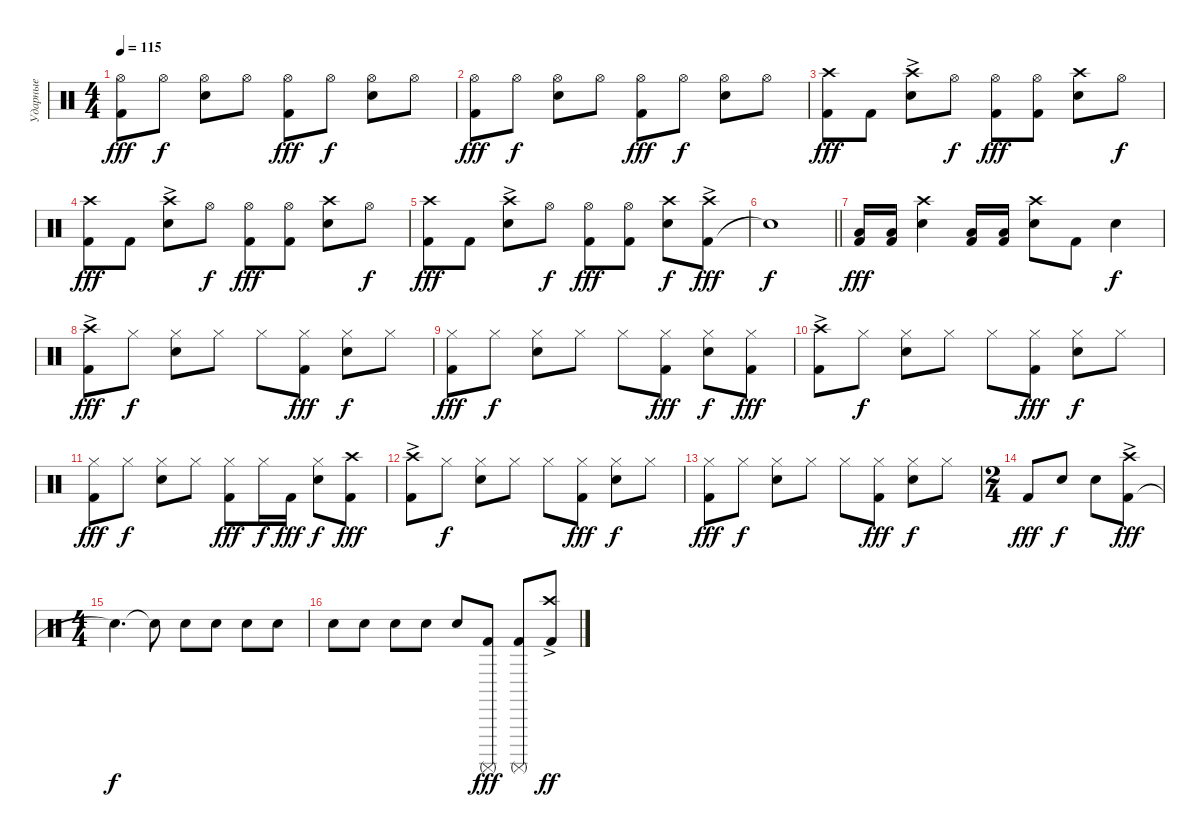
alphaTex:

\track ("Ударные" "Ударные") {instrument percussion}
\staff {score}
\articulation defaults
\ts (4 4)
\tempo 115
\clef neutral
\ks c
("Kick (hit) 2" "Hi-Hat (open)").8{dy fff} "Hi-Hat (open)".8{dy f} ("Snare (hit) 2" "Hi-Hat (open)").8 "Hi-Hat (open)".8 ("Kick (hit) 2" "Hi-Hat (open)").8{dy fff} "Hi-Hat (open)".8{dy f} ("Snare (hit) 2" "Hi-Hat (open)").8 "Hi-Hat (open)".8 |
("Kick (hit) 2" "Hi-Hat (open)").8{dy fff} "Hi-Hat (open)".8{dy f} ("Snare (hit) 2" "Hi-Hat (open)").8 "Hi-Hat (open)".8 ("Kick (hit) 2" "Hi-Hat (open)").8{dy fff} "Hi-Hat (open)".8{dy f} ("Snare (hit) 2" "Hi-Hat (open)").8 "Hi-Hat (open)".8 |
("Kick (hit) 2" "Crash high (hit)").8{dy fff} "Kick (hit) 2".8 ("Snare (hit) 2" "Crash high (hit)"{ac}).8 "Hi-Hat (open)".8{dy f} ("Kick (hit) 2" "Hi-Hat (open)").8{dy fff} ("Kick (hit) 2" "Hi-Hat (open)").8 ("Snare (hit) 2" "Crash high (hit)").8 "Hi-Hat (open)".8{dy f} |
("Kick (hit) 2" "Crash high (hit)").8{dy fff} "Kick (hit) 2".8 ("Snare (hit) 2" "Crash high (hit)"{ac}).8 "Hi-Hat (open)".8{dy f} ("Kick (hit) 2" "Hi-Hat (open)").8{dy fff} ("Kick (hit) 2" "Hi-Hat (open)").8 ("Snare (hit) 2" "Crash high (hit)").8 "Hi-Hat (open)".8{dy f} |
("Kick (hit) 2" "Crash high (hit)").8{dy fff} "Kick (hit) 2".8 ("Snare (hit) 2" "Crash high (hit)"{ac}).8 "Hi-Hat (open)".8{dy f} ("Kick (hit) 2" "Hi-Hat (open)").8{dy fff} ("Kick (hit) 2" "Hi-Hat (open)").8 ("Snare (hit) 2" "Crash high (hit)").8{dy f} ("Kick (hit) 2" "Crash high (hit)"{ac}).8{dy fff} |
\barLineRight lightlight "Snare (hit)"{t}.1{dy f}
|
("Kick (hit) 2" "Low Tom (hit)").16{dy fff} ("Kick (hit) 2" "Low Tom (hit)").16 ("Snare (hit) 2" "Crash high (hit)").4 ("Kick (hit) 2" "Low Tom (hit)").16 ("Kick (hit) 2" "Low Tom (hit)").16 ("Snare (hit) 2" "Crash high (hit)").8 "Kick (hit) 2".8 "Snare (hit) 2".4{dy f} |
("Kick (hit) 2" "Crash high (hit)"{ac}).8{dy fff} "Hi-Hat (closed)".8{dy f} ("Snare (hit) 2" "Hi-Hat (closed)").8 "Hi-Hat (closed)".8 "Hi-Hat (closed)".8 ("Kick (hit) 2" "Hi-Hat (closed)").8{dy fff} ("Snare (hit) 2" "Hi-Hat (closed)").8{dy f} "Hi-Hat (closed)".8 |
("Kick (hit) 2" "Hi-Hat (closed)").8{dy fff} "Hi-Hat (closed)".8{dy f} ("Snare (hit) 2" "Hi-Hat (closed)").8 "Hi-Hat (closed)".8 "Hi-Hat (closed)".8 ("Kick (hit) 2" "Hi-Hat (closed)").8{dy fff} ("Snare (hit) 2" "Hi-Hat (closed)").8{dy f} ("Kick (hit) 2" "Hi-Hat (closed)").8{dy fff} |
("Kick (hit) 2" "Crash high (hit)"{ac}).8 "Hi-Hat (closed)".8{dy f} ("Snare (hit) 2" "Hi-Hat (closed)").8 "Hi-Hat (closed)".8 "Hi-Hat (closed)".8 ("Kick (hit) 2" "Hi-Hat (closed)").8{dy fff} ("Snare (hit) 2" "Hi-Hat (closed)").8{dy f} "Hi-Hat (closed)".8 |
("Kick (hit) 2" "Hi-Hat (closed)").8{dy fff} "Hi-Hat (closed)".8{dy f} ("Snare (hit) 2" "Hi-Hat (closed)").8 "Hi-Hat (closed)".8 ("Kick (hit) 2" "Hi-Hat (closed)").8{dy fff} "Hi-Hat (closed)".16{dy f} "Kick (hit) 2".16{dy fff} ("Snare (hit) 2" "Hi-Hat (closed)").8{dy f} ("Kick (hit) 2" "Crash high (hit)").8{dy fff} |
("Kick (hit) 2" "Crash high (hit)"{ac}).8 "Hi-Hat (closed)".8{dy f} ("Snare (hit) 2" "Hi-Hat (closed)").8 "Hi-Hat (closed)".8 "Hi-Hat (closed)".8 ("Kick (hit) 2" "Hi-Hat (closed)").8{dy fff} ("Snare (hit) 2" "Hi-Hat (closed)").8{dy f} "Hi-Hat (closed)".8 |
("Kick (hit) 2" "Hi-Hat (closed)").8{dy fff} "Hi-Hat (closed)".8{dy f} ("Snare (hit) 2" "Hi-Hat (closed)").8 "Hi-Hat (closed)".8 "Hi-Hat (closed)".8 ("Kick (hit) 2" "Hi-Hat (closed)").8{dy fff} ("Snare (hit) 2" "Hi-Hat (closed)").8{dy f} "Hi-Hat (closed)".8 |
\ts (2 4)
"Kick (hit) 2".8{dy fff} "Snare (hit) 2".8{dy f} "Snare (hit) 2".8 ("Kick (hit) 2" "Crash high (hit)"{ac}).8{dy fff} |
\ts (4 4)
"Snare (hit)"{t}.4{d dy f} "Snare (hit)"{t}.8{volume 5} "Snare (hit) 2".8{volume 9} "Snare (hit) 2".8 "Snare (hit) 2".8 "Snare (hit) 2".8 |
"Snare (hit) 2".8 "Snare (hit) 2".8 "Snare (hit) 2".8 "Snare (hit) 2".8 "Snare (hit) 2".8 ("Kick (hit) 2" "Surdo (mute)").8{dy fff} ("Kick (hit) 2" "Surdo (mute)").8 ("Kick (hit) 2" "Crash high (hit)"{ac}).8{dy ff}
